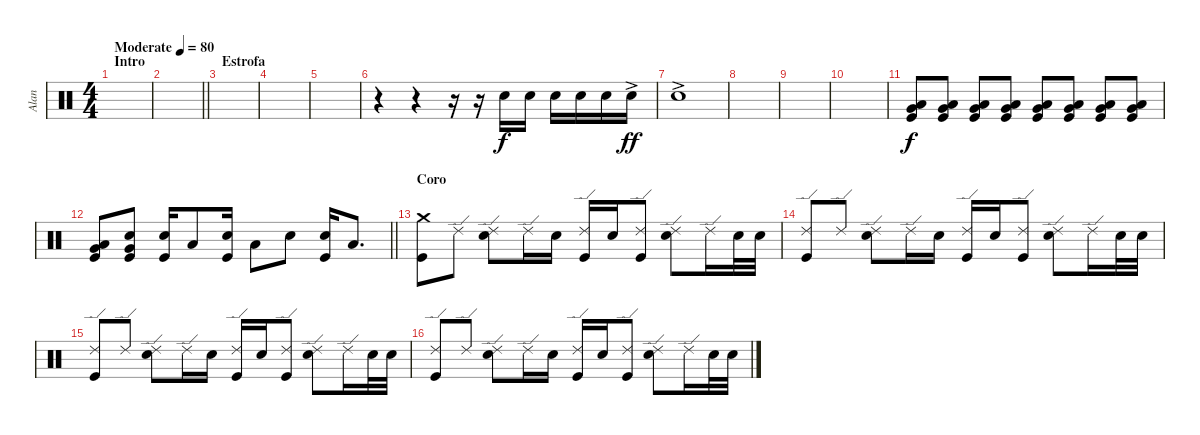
\track ("Alan" "Alan") {instrument percussion}
\staff {score}
\articulation defaults
\ts (4 4)
\section ("" "Intro")
\tempo (80 "Moderate")
\clef neutral
\ks c
|
\barLineRight lightlight
|
\section ("" "Estrofa")
|
|
|
r.4 r.4 r.16 r.16 "Snare (hit) 2".16 "Snare (hit) 2".16 "Snare (hit) 2".16 "Snare (hit) 2".16 "Snare (hit) 2".16 "Snare (hit) 2"{ac}.16{dy ff} |
"Snare (hit) 2"{ac}.1 |
|
|
|
("Kick (hit)" "Low Tom (hit)" "Very Low Tom (hit)").8{dy f} ("Kick (hit)" "Low Tom (hit)" "Very Low Tom (hit)").8 ("Kick (hit)" "Low Tom (hit)" "Very Low Tom (hit)").8 ("Kick (hit)" "Low Tom (hit)" "Very Low Tom (hit)").8 ("Kick (hit)" "Low Tom (hit)" "Very Low Tom (hit)").8 ("Kick (hit)" "Low Tom (hit)" "Very Low Tom (hit)").8 ("Kick (hit)" "Low Tom (hit)" "Very Low Tom (hit)").8 ("Kick (hit)" "Low Tom (hit)" "Very Low Tom (hit)").8 |
\barLineRight lightlight
("Kick (hit)" "Low Tom (hit)" "Very Low Tom (hit)").8 ("Kick (hit)" "Very Low Tom (hit)" "Snare (hit) 2").8 ("Kick (hit)" "Snare (hit) 2").16 "Low Tom (hit)".8 ("Kick (hit)" "Snare (hit) 2").16 "Low Tom (hit)".8 "Snare (hit) 2".8 ("Kick (hit)" "Snare (hit) 2").16 "Low Tom (hit)".8{d} |
\section ("" "Coro")
("Crash medium (hit)" "Kick (hit)").8 "Ride (edge) 2".8 ("Ride (edge) 2" "Snare (hit) 2").8 "Ride (edge) 2".16 "Snare (hit) 2".16 ("Ride (edge) 2" "Kick (hit)").16 "Snare (hit) 2".16 ("Ride (edge) 2" "Kick (hit)").8 ("Ride (edge) 2" "Snare (hit) 2").8 "Ride (edge) 2".16 "Snare (hit) 2".32 "Snare (hit) 2".32 |
("Ride (edge) 2" "Kick (hit)").8 "Ride (edge) 2".8 ("Ride (edge) 2" "Snare (hit) 2").8 "Ride (edge) 2".16 "Snare (hit) 2".16 ("Ride (edge) 2" "Kick (hit)").16 "Snare (hit) 2".16 ("Ride (edge) 2" "Kick (hit)").8 ("Ride (edge) 2" "Snare (hit) 2").8 "Ride (edge) 2".16 "Snare (hit) 2".32 "Snare (hit) 2".32 |
("Ride (edge) 2" "Kick (hit)").8 "Ride (edge) 2".8 ("Ride (edge) 2" "Snare (hit) 2").8 "Ride (edge) 2".16 "Snare (hit) 2".16 ("Ride (edge) 2" "Kick (hit)").16 "Snare (hit) 2".16 ("Ride (edge) 2" "Kick (hit)").8 ("Ride (edge) 2" "Snare (hit) 2").8 "Ride (edge) 2".16 "Snare (hit) 2".32 "Snare (hit) 2".32 |
("Ride (edge) 2" "Kick (hit)").8 "Ride (edge) 2".8 ("Ride (edge) 2" "Snare (hit) 2").8 "Ride (edge) 2".16 "Snare (hit) 2".16 ("Ride (edge) 2" "Kick (hit)").16 "Snare (hit) 2".16 ("Ride (edge) 2" "Kick (hit)").8 ("Ride (edge) 2" "Snare (hit) 2").8 "Ride (edge) 2".16 "Snare (hit) 2".32 "Snare (hit) 2".32
